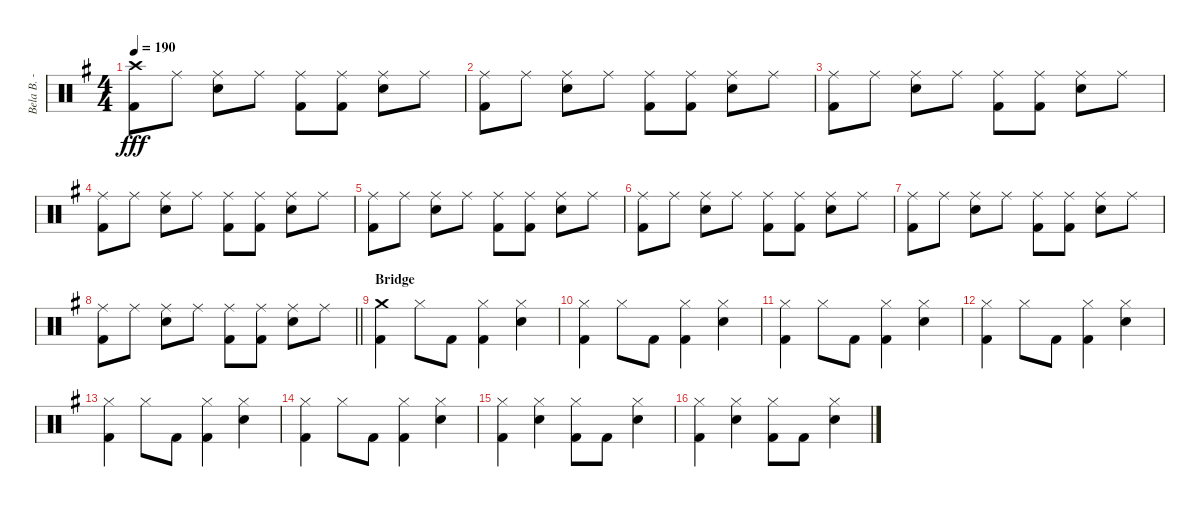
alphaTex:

\track ("Bela B. - Drums" "Bela B. - ") {instrument percussion}
\staff {score}
\articulation defaults
\ts (4 4)
\tempo 190
\clef neutral
\ks g
("Crash high (hit)" "Kick (hit) 2").8{dy fff} "Ride (middle)".8 ("Ride (middle)" "Snare (hit) 2").8 "Ride (middle)".8 ("Ride (middle)" "Kick (hit) 2").8 ("Ride (middle)" "Kick (hit) 2").8 ("Ride (middle)" "Snare (hit) 2").8 "Ride (middle)".8 |
("Ride (middle)" "Kick (hit) 2").8 "Ride (middle)".8 ("Ride (middle)" "Snare (hit) 2").8 "Ride (middle)".8 ("Ride (middle)" "Kick (hit) 2").8 ("Ride (middle)" "Kick (hit) 2").8 ("Ride (middle)" "Snare (hit) 2").8 "Ride (middle)".8 |
("Ride (middle)" "Kick (hit) 2").8 "Ride (middle)".8 ("Ride (middle)" "Snare (hit) 2").8 "Ride (middle)".8 ("Ride (middle)" "Kick (hit) 2").8 ("Ride (middle)" "Kick (hit) 2").8 ("Ride (middle)" "Snare (hit) 2").8 "Ride (middle)".8 |
("Ride (middle)" "Kick (hit) 2").8 "Ride (middle)".8 ("Ride (middle)" "Snare (hit) 2").8 "Ride (middle)".8 ("Ride (middle)" "Kick (hit) 2").8 ("Ride (middle)" "Kick (hit) 2").8 ("Ride (middle)" "Snare (hit) 2").8 "Ride (middle)".8 |
("Ride (middle)" "Kick (hit) 2").8 "Ride (middle)".8 ("Ride (middle)" "Snare (hit) 2").8 "Ride (middle)".8 ("Ride (middle)" "Kick (hit) 2").8 ("Ride (middle)" "Kick (hit) 2").8 ("Ride (middle)" "Snare (hit) 2").8 "Ride (middle)".8 |
("Ride (middle)" "Kick (hit) 2").8 "Ride (middle)".8 ("Ride (middle)" "Snare (hit) 2").8 "Ride (middle)".8 ("Ride (middle)" "Kick (hit) 2").8 ("Ride (middle)" "Kick (hit) 2").8 ("Ride (middle)" "Snare (hit) 2").8 "Ride (middle)".8 |
("Ride (middle)" "Kick (hit) 2").8 "Ride (middle)".8 ("Ride (middle)" "Snare (hit) 2").8 "Ride (middle)".8 ("Ride (middle)" "Kick (hit) 2").8 ("Ride (middle)" "Kick (hit) 2").8 ("Ride (middle)" "Snare (hit) 2").8 "Ride (middle)".8 |
\barLineRight lightlight
("Ride (middle)" "Kick (hit) 2").8 "Ride (middle)".8 ("Ride (middle)" "Snare (hit) 2").8 "Ride (middle)".8 ("Ride (middle)" "Kick (hit) 2").8 ("Ride (middle)" "Kick (hit) 2").8 ("Ride (middle)" "Snare (hit) 2").8 "Ride (middle)".8 |
\section ("" "Bridge")
("Crash medium (hit)" "Kick (hit) 2").4 "Hi-Hat (closed)".8 "Kick (hit) 2".8 ("Hi-Hat (closed)" "Kick (hit) 2").4 ("Hi-Hat (closed)" "Snare (hit) 2").4 |
("Hi-Hat (closed)" "Kick (hit) 2").4 "Hi-Hat (closed)".8 "Kick (hit) 2".8 ("Hi-Hat (closed)" "Kick (hit) 2").4 ("Hi-Hat (closed)" "Snare (hit) 2").4 |
("Hi-Hat (closed)" "Kick (hit) 2").4 "Hi-Hat (closed)".8 "Kick (hit) 2".8 ("Hi-Hat (closed)" "Kick (hit) 2").4 ("Hi-Hat (closed)" "Snare (hit) 2").4 |
("Hi-Hat (closed)" "Kick (hit) 2").4 "Hi-Hat (closed)".8 "Kick (hit) 2".8 ("Hi-Hat (closed)" "Kick (hit) 2").4 ("Hi-Hat (closed)" "Snare (hit) 2").4 |
("Hi-Hat (closed)" "Kick (hit) 2").4 "Hi-Hat (closed)".8 "Kick (hit) 2".8 ("Hi-Hat (closed)" "Kick (hit) 2").4 ("Hi-Hat (closed)" "Snare (hit) 2").4 |
("Hi-Hat (closed)" "Kick (hit) 2").4 "Hi-Hat (closed)".8 "Kick (hit) 2".8 ("Hi-Hat (closed)" "Kick (hit) 2").4 ("Hi-Hat (closed)" "Snare (hit) 2").4 |
("Hi-Hat (closed)" "Kick (hit) 2").4 ("Hi-Hat (closed)" "Snare (hit) 2").4 ("Hi-Hat (closed)" "Kick (hit) 2").8 "Kick (hit) 2".8 ("Hi-Hat (closed)" "Snare (hit) 2").4 |
("Hi-Hat (closed)" "Kick (hit) 2").4 ("Hi-Hat (closed)" "Snare (hit) 2").4 ("Hi-Hat (closed)" "Kick (hit) 2").8 "Kick (hit) 2".8 ("Hi-Hat (closed)" "Snare (hit) 2").4
